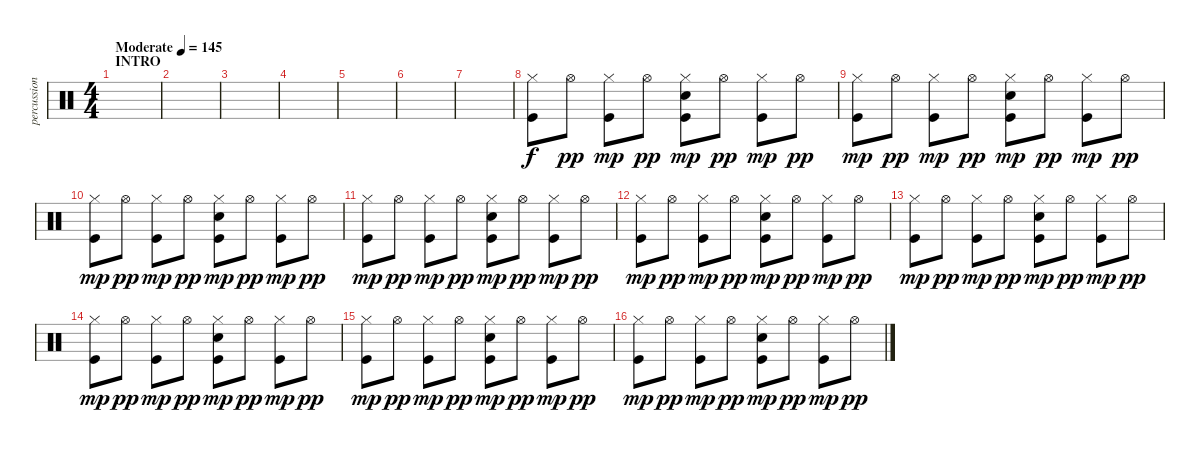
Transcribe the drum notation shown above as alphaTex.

\track ("percussion" "percussion") {instrument percussion}
\staff {score}
\articulation defaults
\ts (4 4)
\section ("" "INTRO")
\tempo (145 "Moderate")
\clef neutral
\ks c
|
|
|
|
|
|
|
("Hi-Hat (closed)" "Kick (hit)").8 "Hi-Hat (open)".8{dy pp} ("Hi-Hat (closed)" "Kick (hit)").8{dy mp} "Hi-Hat (open)".8{dy pp} ("Hi-Hat (closed)" "Electric Snare (hit)" "Kick (hit)").8{dy mp} "Hi-Hat (open)".8{dy pp} ("Hi-Hat (closed)" "Kick (hit)").8{dy mp} "Hi-Hat (open)".8{dy pp} |
("Hi-Hat (closed)" "Kick (hit)").8{dy mp} "Hi-Hat (open)".8{dy pp} ("Hi-Hat (closed)" "Kick (hit)").8{dy mp} "Hi-Hat (open)".8{dy pp} ("Hi-Hat (closed)" "Electric Snare (hit)" "Kick (hit)").8{dy mp} "Hi-Hat (open)".8{dy pp} ("Hi-Hat (closed)" "Kick (hit)").8{dy mp} "Hi-Hat (open)".8{dy pp} |
("Hi-Hat (closed)" "Kick (hit)").8{dy mp} "Hi-Hat (open)".8{dy pp} ("Hi-Hat (closed)" "Kick (hit)").8{dy mp} "Hi-Hat (open)".8{dy pp} ("Hi-Hat (closed)" "Electric Snare (hit)" "Kick (hit)").8{dy mp} "Hi-Hat (open)".8{dy pp} ("Hi-Hat (closed)" "Kick (hit)").8{dy mp} "Hi-Hat (open)".8{dy pp} |
("Hi-Hat (closed)" "Kick (hit)").8{dy mp} "Hi-Hat (open)".8{dy pp} ("Hi-Hat (closed)" "Kick (hit)").8{dy mp} "Hi-Hat (open)".8{dy pp} ("Hi-Hat (closed)" "Electric Snare (hit)" "Kick (hit)").8{dy mp} "Hi-Hat (open)".8{dy pp} ("Hi-Hat (closed)" "Kick (hit)").8{dy mp} "Hi-Hat (open)".8{dy pp} |
("Hi-Hat (closed)" "Kick (hit)").8{dy mp} "Hi-Hat (open)".8{dy pp} ("Hi-Hat (closed)" "Kick (hit)").8{dy mp} "Hi-Hat (open)".8{dy pp} ("Hi-Hat (closed)" "Electric Snare (hit)" "Kick (hit)").8{dy mp} "Hi-Hat (open)".8{dy pp} ("Hi-Hat (closed)" "Kick (hit)").8{dy mp} "Hi-Hat (open)".8{dy pp} |
("Hi-Hat (closed)" "Kick (hit)").8{dy mp} "Hi-Hat (open)".8{dy pp} ("Hi-Hat (closed)" "Kick (hit)").8{dy mp} "Hi-Hat (open)".8{dy pp} ("Hi-Hat (closed)" "Electric Snare (hit)" "Kick (hit)").8{dy mp} "Hi-Hat (open)".8{dy pp} ("Hi-Hat (closed)" "Kick (hit)").8{dy mp} "Hi-Hat (open)".8{dy pp} |
("Hi-Hat (closed)" "Kick (hit)").8{dy mp} "Hi-Hat (open)".8{dy pp} ("Hi-Hat (closed)" "Kick (hit)").8{dy mp} "Hi-Hat (open)".8{dy pp} ("Hi-Hat (closed)" "Electric Snare (hit)" "Kick (hit)").8{dy mp} "Hi-Hat (open)".8{dy pp} ("Hi-Hat (closed)" "Kick (hit)").8{dy mp} "Hi-Hat (open)".8{dy pp} |
("Hi-Hat (closed)" "Kick (hit)").8{dy mp} "Hi-Hat (open)".8{dy pp} ("Hi-Hat (closed)" "Kick (hit)").8{dy mp} "Hi-Hat (open)".8{dy pp} ("Hi-Hat (closed)" "Electric Snare (hit)" "Kick (hit)").8{dy mp} "Hi-Hat (open)".8{dy pp} ("Hi-Hat (closed)" "Kick (hit)").8{dy mp} "Hi-Hat (open)".8{dy pp} |
("Hi-Hat (closed)" "Kick (hit)").8{dy mp} "Hi-Hat (open)".8{dy pp} ("Hi-Hat (closed)" "Kick (hit)").8{dy mp} "Hi-Hat (open)".8{dy pp} ("Hi-Hat (closed)" "Electric Snare (hit)" "Kick (hit)").8{dy mp} "Hi-Hat (open)".8{dy pp} ("Hi-Hat (closed)" "Kick (hit)").8{dy mp} "Hi-Hat (open)".8{dy pp}
